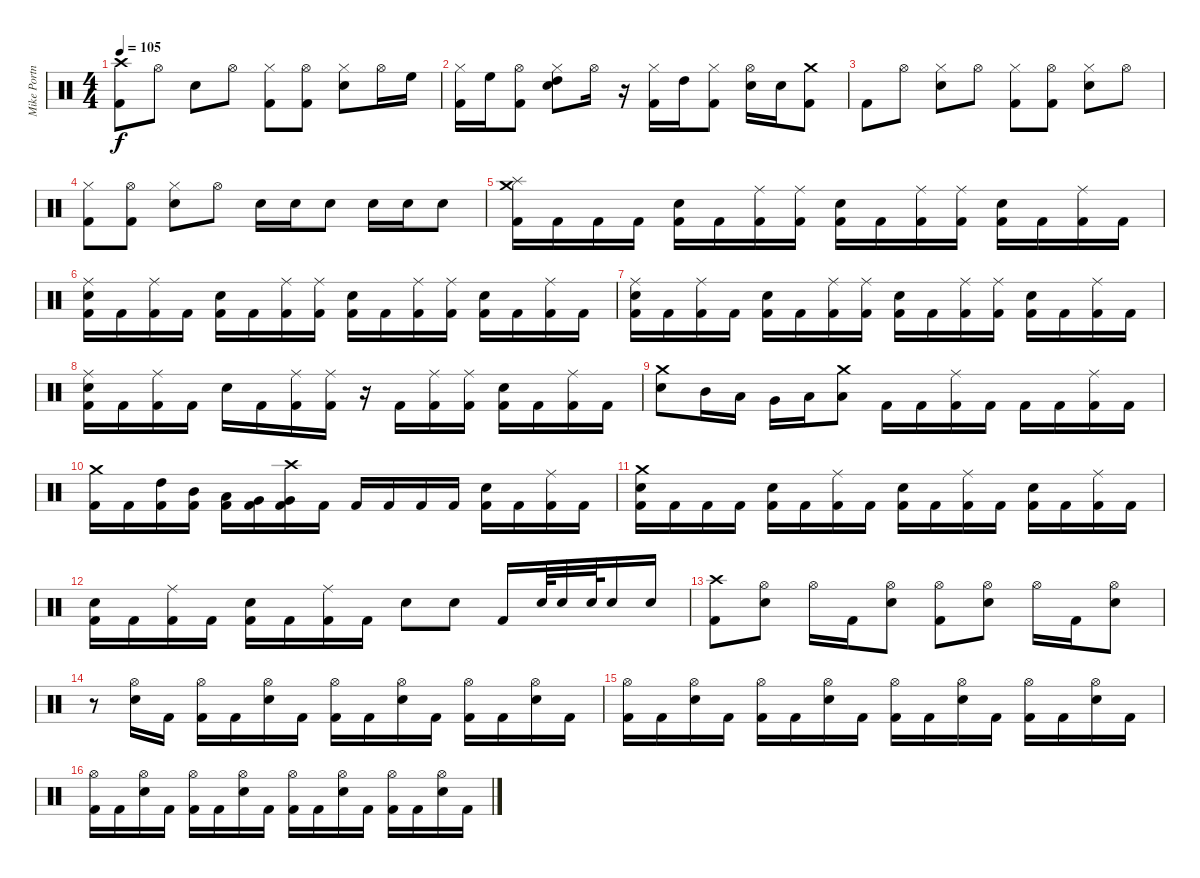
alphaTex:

\track ("Mike Portnoy" "Mike Portn") {instrument percussion}
\staff {score}
\articulation defaults
\ts (4 4)
\tempo 105
\clef neutral
\ks c
("Crash high (hit)" "Kick (hit) 2").8{dy f} "Hi-Hat (open)".8 "Electric Snare (hit)".8 "Hi-Hat (open)".8 ("Hi-Hat (closed)" "Kick (hit) 2").8 ("Hi-Hat (open)" "Kick (hit) 2").8 ("Hi-Hat (closed)" "Electric Snare (hit)").8 "Hi-Hat (open)".16 "High Floor Tom (hit)".16 |
("Hi-Hat (closed)" "Kick (hit) 2").16 "High Floor Tom (hit)".16 ("Hi-Hat (open)" "Kick (hit) 2").8 ("Hi-Hat (closed)" "High Tom (hit)" "Electric Snare (hit)").8 "Hi-Hat (open)".16 r.16 ("Hi-Hat (closed)" "Kick (hit) 2").16 "High Tom (hit)".16 ("Hi-Hat (closed)" "Kick (hit) 2").8 ("Hi-Hat (open)" "Electric Snare (hit)").16 "Electric Snare (hit)".16 ("Crash medium (hit)" "Kick (hit) 2").8 |
"Kick (hit) 2".8 "Hi-Hat (open)".8 ("Hi-Hat (closed)" "Electric Snare (hit)").8 "Hi-Hat (open)".8 ("Hi-Hat (closed)" "Kick (hit) 2").8 ("Hi-Hat (open)" "Kick (hit) 2").8 ("Hi-Hat (closed)" "Electric Snare (hit)").8 "Hi-Hat (open)".8 |
("Hi-Hat (closed)" "Kick (hit) 2").8 ("Hi-Hat (open)" "Kick (hit) 2").8 ("Hi-Hat (closed)" "Electric Snare (hit)").8 "Hi-Hat (open)".8 "Electric Snare (hit)".16 "Electric Snare (hit)".16 "Electric Snare (hit)".8 "Electric Snare (hit)".16 "Electric Snare (hit)".16 "Electric Snare (hit)".8 |
("Crash medium (hit)" "Splash (hit)" "Kick (hit) 2").16 "Kick (hit) 2".16 "Kick (hit) 2".16 "Kick (hit) 2".16 ("Electric Snare (hit)" "Kick (hit) 2").16 "Kick (hit) 2".16 ("Ride (middle)" "Kick (hit) 2").16 ("Ride (middle)" "Kick (hit) 2").16 ("Electric Snare (hit)" "Kick (hit) 2").16 "Kick (hit) 2".16 ("Ride (middle)" "Kick (hit) 2").16 ("Ride (middle)" "Kick (hit) 2").16 ("Electric Snare (hit)" "Kick (hit) 2").16 "Kick (hit) 2".16 ("Ride (middle)" "Kick (hit) 2").16 "Kick (hit) 2".16 |
("Ride (middle)" "Electric Snare (hit)" "Kick (hit) 2").16 "Kick (hit) 2".16 ("Ride (middle)" "Kick (hit) 2").16 "Kick (hit) 2".16 ("Electric Snare (hit)" "Kick (hit) 2").16 "Kick (hit) 2".16 ("Ride (middle)" "Kick (hit) 2").16 ("Ride (middle)" "Kick (hit) 2").16 ("Electric Snare (hit)" "Kick (hit) 2").16 "Kick (hit) 2".16 ("Ride (middle)" "Kick (hit) 2").16 ("Ride (middle)" "Kick (hit) 2").16 ("Electric Snare (hit)" "Kick (hit) 2").16 "Kick (hit) 2".16 ("Ride (middle)" "Kick (hit) 2").16 "Kick (hit) 2".16 |
("Ride (middle)" "Electric Snare (hit)" "Kick (hit) 2").16 "Kick (hit) 2".16 ("Ride (middle)" "Kick (hit) 2").16 "Kick (hit) 2".16 ("Electric Snare (hit)" "Kick (hit) 2").16 "Kick (hit) 2".16 ("Ride (middle)" "Kick (hit) 2").16 ("Ride (middle)" "Kick (hit) 2").16 ("Electric Snare (hit)" "Kick (hit) 2").16 "Kick (hit) 2".16 ("Ride (middle)" "Kick (hit) 2").16 ("Ride (middle)" "Kick (hit) 2").16 ("Electric Snare (hit)" "Kick (hit) 2").16 "Kick (hit) 2".16 ("Ride (middle)" "Kick (hit) 2").16 "Kick (hit) 2".16 |
("Ride (middle)" "Electric Snare (hit)" "Kick (hit) 2").16 "Kick (hit) 2".16 ("Ride (middle)" "Kick (hit) 2").16 "Kick (hit) 2".16 "Electric Snare (hit)".16 "Kick (hit) 2".16 ("Ride (middle)" "Kick (hit) 2").16 ("Ride (middle)" "Kick (hit) 2").16 r.16 "Kick (hit) 2".16 ("Ride (middle)" "Kick (hit) 2").16 ("Ride (middle)" "Kick (hit) 2").16 ("Electric Snare (hit)" "Kick (hit) 2").16 "Kick (hit) 2".16 ("Ride (middle)" "Kick (hit) 2").16 "Kick (hit) 2".16 |
("Crash medium (hit)" "Electric Snare (hit)").8 "Mid Tom (hit)".16 "Low Tom (hit)".16 "Very Low Tom (hit)".16 "Low Floor Tom (hit)".16 ("Crash medium (hit)" "Low Floor Tom (hit)").8 "Kick (hit) 2".16 "Kick (hit) 2".16 ("Ride (middle)" "Kick (hit) 2").16 "Kick (hit) 2".16 "Kick (hit) 2".16 "Kick (hit) 2".16 ("Ride (middle)" "Kick (hit) 2").16 "Kick (hit) 2".16 |
("Crash medium (hit)" "Kick (hit) 2").16 "Kick (hit) 2".16 ("High Tom (hit)" "Kick (hit) 2").16 ("Mid Tom (hit)" "Kick (hit) 2").16 ("Low Tom (hit)" "Kick (hit) 2").16 ("Very Low Tom (hit)" "Kick (hit) 2").16 ("Crash high (hit)" "Very Low Tom (hit)" "Kick (hit) 2").16 "Kick (hit) 2".16 "Kick (hit) 2".16 "Kick (hit) 2".16 "Kick (hit) 2".16 "Kick (hit) 2".16 ("Electric Snare (hit)" "Kick (hit) 2").16 "Kick (hit) 2".16 ("Ride (middle)" "Kick (hit) 2").16 "Kick (hit) 2".16 |
("Crash medium (hit)" "Electric Snare (hit)" "Kick (hit) 2").16 "Kick (hit) 2".16 "Kick (hit) 2".16 "Kick (hit) 2".16 ("Electric Snare (hit)" "Kick (hit) 2").16 "Kick (hit) 2".16 ("Ride (middle)" "Kick (hit) 2").16 "Kick (hit) 2".16 ("Electric Snare (hit)" "Kick (hit) 2").16 "Kick (hit) 2".16 ("Ride (middle)" "Kick (hit) 2").16 "Kick (hit) 2".16 ("Electric Snare (hit)" "Kick (hit) 2").16 "Kick (hit) 2".16 ("Ride (middle)" "Kick (hit) 2").16 "Kick (hit) 2".16 |
("Electric Snare (hit)" "Kick (hit) 2").16 "Kick (hit) 2".16 ("Ride (middle)" "Kick (hit) 2").16 "Kick (hit) 2".16 ("Electric Snare (hit)" "Kick (hit) 2").16 "Kick (hit) 2".16 ("Ride (middle)" "Kick (hit) 2").16 "Kick (hit) 2".16 "Electric Snare (hit)".8 "Electric Snare (hit)".8 "Kick (hit) 2".16 "Electric Snare (hit)".64 "Electric Snare (hit)".32 "Electric Snare (hit)".64 "Electric Snare (hit)".16 "Electric Snare (hit)".16 |
("Crash high (hit)" "Kick (hit) 2").8 ("Hi-Hat (open)" "Electric Snare (hit)").8 "Hi-Hat (open)".16 "Kick (hit) 2".16 ("Hi-Hat (open)" "Electric Snare (hit)").8 ("Hi-Hat (open)" "Kick (hit) 2").8 ("Hi-Hat (open)" "Electric Snare (hit)").8 "Hi-Hat (open)".16 "Kick (hit) 2".16 ("Hi-Hat (open)" "Electric Snare (hit)").8 |
r.8 ("Hi-Hat (open)" "Electric Snare (hit)").16 "Kick (hit) 2".16 ("Hi-Hat (open)" "Kick (hit) 2").16 "Kick (hit) 2".16 ("Hi-Hat (open)" "Electric Snare (hit)").16 "Kick (hit) 2".16 ("Hi-Hat (open)" "Kick (hit) 2").16 "Kick (hit) 2".16 ("Hi-Hat (open)" "Electric Snare (hit)").16 "Kick (hit) 2".16 ("Hi-Hat (open)" "Kick (hit) 2").16 "Kick (hit) 2".16 ("Hi-Hat (open)" "Electric Snare (hit)").16 "Kick (hit) 2".16 |
("Hi-Hat (open)" "Kick (hit) 2").16 "Kick (hit) 2".16 ("Hi-Hat (open)" "Electric Snare (hit)").16 "Kick (hit) 2".16 ("Hi-Hat (open)" "Kick (hit) 2").16 "Kick (hit) 2".16 ("Hi-Hat (open)" "Electric Snare (hit)").16 "Kick (hit) 2".16 ("Hi-Hat (open)" "Kick (hit) 2").16 "Kick (hit) 2".16 ("Hi-Hat (open)" "Electric Snare (hit)").16 "Kick (hit) 2".16 ("Hi-Hat (open)" "Kick (hit) 2").16 "Kick (hit) 2".16 ("Hi-Hat (open)" "Electric Snare (hit)").16 "Kick (hit) 2".16 |
("Hi-Hat (open)" "Kick (hit) 2").16 "Kick (hit) 2".16 ("Hi-Hat (open)" "Electric Snare (hit)").16 "Kick (hit) 2".16 ("Hi-Hat (open)" "Kick (hit) 2").16 "Kick (hit) 2".16 ("Hi-Hat (open)" "Electric Snare (hit)").16 "Kick (hit) 2".16 ("Hi-Hat (open)" "Kick (hit) 2").16 "Kick (hit) 2".16 ("Hi-Hat (open)" "Electric Snare (hit)").16 "Kick (hit) 2".16 ("Hi-Hat (open)" "Kick (hit) 2").16 "Kick (hit) 2".16 ("Hi-Hat (open)" "Electric Snare (hit)").16 "Kick (hit) 2".16
